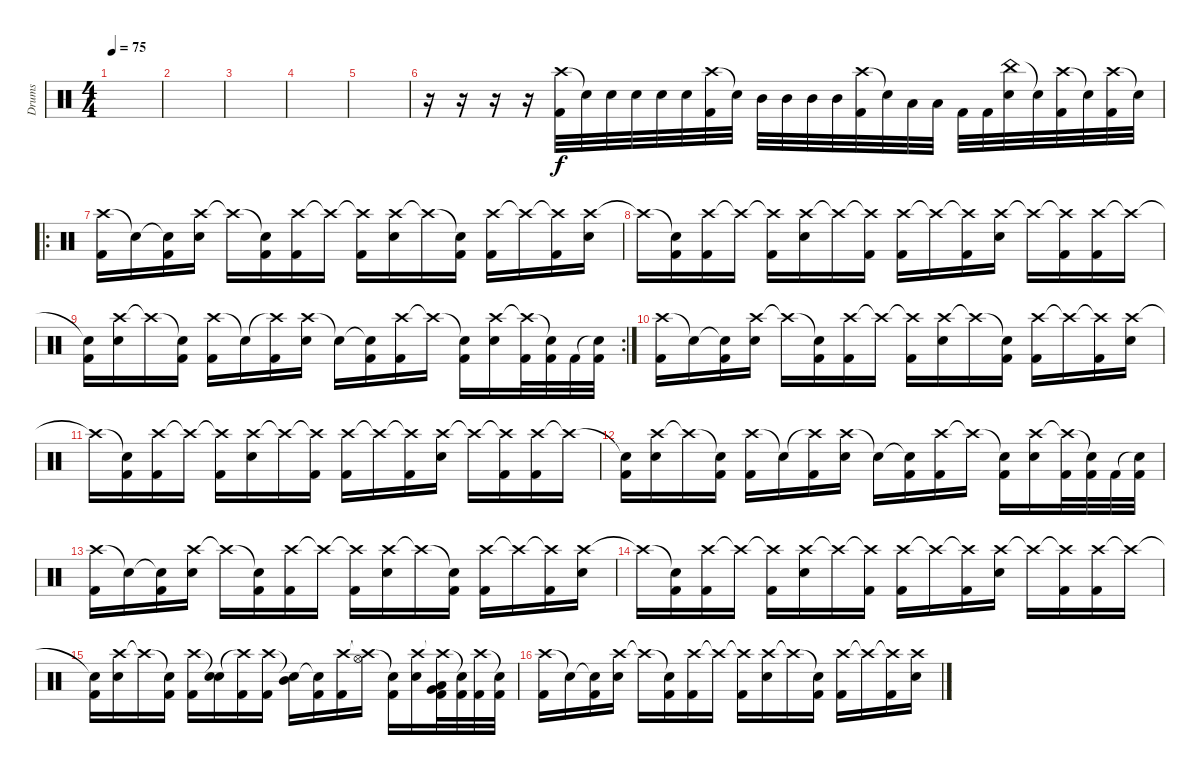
\track ("Drums" "Drums") {instrument percussion}
\staff {score}
\articulation defaults
\ts (4 4)
\tempo 75
\clef neutral
\ks c
|
|
|
|
|
r.16 r.16 r.16 r.16 ("Crash high (hit)" "Kick (hit) 2").32 "Snare (hit)"{t}.32 "Electric Snare (hit)".32 "Electric Snare (hit)".32 "Electric Snare (hit)".32 "Electric Snare (hit)".32 ("Crash high (hit)" "Kick (hit) 2").32 "Snare (hit)"{t}.32 "Mid Tom (hit)".32 "Mid Tom (hit)".32 "Mid Tom (hit)".32 "Mid Tom (hit)".32 ("Crash high (hit)" "Kick (hit) 2").32 "Snare (hit)"{t}.32 "Low Tom (hit)".32 "Low Tom (hit)".32 "Kick (hit) 2".32 "Kick (hit) 2".32 ("China (hit)" "Electric Snare (hit)").32 "Snare (hit)"{t}.32 ("Crash high (hit)" "Kick (hit) 2").32 "Snare (hit)"{t}.32 ("Crash high (hit)" "Kick (hit) 2").32 "Snare (hit)"{t}.32 |
\ro
("Crash high (hit)" "Kick (hit) 2").16 "Snare (hit)"{t}.16 ("Snare (hit)"{t} "Kick (hit) 2").16 ("Crash high (hit)" "Electric Snare (hit)").16 "Crash high (hit)"{t}.16 ("Snare (hit)"{t} "Kick (hit) 2").16 ("Crash high (hit)" "Kick (hit) 2").16 "Crash high (hit)"{t}.16 ("Crash high (hit)"{t} "Kick (hit) 2").16 ("Crash high (hit)" "Electric Snare (hit)").16 "Crash high (hit)"{t}.16 ("Snare (hit)"{t} "Kick (hit) 2").16 ("Crash high (hit)" "Kick (hit) 2").16 "Crash high (hit)"{t}.16 ("Crash high (hit)"{t} "Kick (hit) 2").16 ("Crash high (hit)" "Electric Snare (hit)").16 |
"Crash high (hit)"{t}.16 ("Snare (hit)"{t} "Kick (hit) 2").16 ("Crash high (hit)" "Kick (hit) 2").16 "Crash high (hit)"{t}.16 ("Crash high (hit)"{t} "Kick (hit) 2").16 ("Crash high (hit)" "Electric Snare (hit)").16 "Crash high (hit)"{t}.16 ("Crash high (hit)"{t} "Kick (hit) 2").16 ("Crash high (hit)" "Kick (hit) 2").16 "Crash high (hit)"{t}.16 ("Crash high (hit)"{t} "Kick (hit) 2").16 ("Crash high (hit)" "Electric Snare (hit)").16 "Crash high (hit)"{t}.16 ("Crash high (hit)"{t} "Kick (hit) 2").16 ("Crash high (hit)" "Kick (hit) 2").16 "Crash high (hit)"{t}.16 |
\rc 2
("Snare (hit)"{t} "Kick (hit) 2").16 ("Crash high (hit)" "Electric Snare (hit)").16 "Crash high (hit)"{t}.16 ("Snare (hit)"{t} "Kick (hit) 2").16 ("Crash high (hit)" "Kick (hit) 2").16 "Snare (hit)"{t}.16 ("Crash high (hit)"{t} "Kick (hit) 2").16 ("Crash high (hit)" "Electric Snare (hit)").16 "Snare (hit)"{t}.16 ("Snare (hit)"{t} "Kick (hit) 2").16 ("Crash high (hit)" "Kick (hit) 2").16 "Crash high (hit)"{t}.16 ("Snare (hit)"{t} "Kick (hit) 2").16 ("Crash high (hit)" "Electric Snare (hit)").16 ("Crash high (hit)"{t} "Kick (hit) 2").32 ("Snare (hit)"{t} "Kick (hit) 2").32 "Kick (hit) 2".32 ("Snare (hit)"{t} "Kick (hit) 2").32 |
("Crash high (hit)" "Kick (hit) 2").16 "Snare (hit)"{t}.16 ("Snare (hit)"{t} "Kick (hit) 2").16 ("Crash high (hit)" "Electric Snare (hit)").16 "Crash high (hit)"{t}.16 ("Snare (hit)"{t} "Kick (hit) 2").16 ("Crash high (hit)" "Kick (hit) 2").16 "Crash high (hit)"{t}.16 ("Crash high (hit)"{t} "Kick (hit) 2").16 ("Crash high (hit)" "Electric Snare (hit)").16 "Crash high (hit)"{t}.16 ("Snare (hit)"{t} "Kick (hit) 2").16 ("Crash high (hit)" "Kick (hit) 2").16 "Crash high (hit)"{t}.16 ("Crash high (hit)"{t} "Kick (hit) 2").16 ("Crash high (hit)" "Electric Snare (hit)").16 |
"Crash high (hit)"{t}.16 ("Snare (hit)"{t} "Kick (hit) 2").16 ("Crash high (hit)" "Kick (hit) 2").16 "Crash high (hit)"{t}.16 ("Crash high (hit)"{t} "Kick (hit) 2").16 ("Crash high (hit)" "Electric Snare (hit)").16 "Crash high (hit)"{t}.16 ("Crash high (hit)"{t} "Kick (hit) 2").16 ("Crash high (hit)" "Kick (hit) 2").16 "Crash high (hit)"{t}.16 ("Crash high (hit)"{t} "Kick (hit) 2").16 ("Crash high (hit)" "Electric Snare (hit)").16 "Crash high (hit)"{t}.16 ("Crash high (hit)"{t} "Kick (hit) 2").16 ("Crash high (hit)" "Kick (hit) 2").16 "Crash high (hit)"{t}.16 |
("Snare (hit)"{t} "Kick (hit) 2").16 ("Crash high (hit)" "Electric Snare (hit)").16 "Crash high (hit)"{t}.16 ("Snare (hit)"{t} "Kick (hit) 2").16 ("Crash high (hit)" "Kick (hit) 2").16 "Snare (hit)"{t}.16 ("Crash high (hit)"{t} "Kick (hit) 2").16 ("Crash high (hit)" "Electric Snare (hit)").16 "Snare (hit)"{t}.16 ("Snare (hit)"{t} "Kick (hit) 2").16 ("Crash high (hit)" "Kick (hit) 2").16 "Crash high (hit)"{t}.16 ("Snare (hit)"{t} "Kick (hit) 2").16 ("Crash high (hit)" "Electric Snare (hit)").16 ("Crash high (hit)"{t} "Kick (hit) 2").32 ("Snare (hit)"{t} "Kick (hit) 2").32 "Kick (hit) 2".32 ("Snare (hit)"{t} "Kick (hit) 2").32 |
("Crash high (hit)" "Kick (hit) 2").16 "Snare (hit)"{t}.16 ("Snare (hit)"{t} "Kick (hit) 2").16 ("Crash high (hit)" "Electric Snare (hit)").16 "Crash high (hit)"{t}.16 ("Snare (hit)"{t} "Kick (hit) 2").16 ("Crash high (hit)" "Kick (hit) 2").16 "Crash high (hit)"{t}.16 ("Crash high (hit)"{t} "Kick (hit) 2").16 ("Crash high (hit)" "Electric Snare (hit)").16 "Crash high (hit)"{t}.16 ("Snare (hit)"{t} "Kick (hit) 2").16 ("Crash high (hit)" "Kick (hit) 2").16 "Crash high (hit)"{t}.16 ("Crash high (hit)"{t} "Kick (hit) 2").16 ("Crash high (hit)" "Electric Snare (hit)").16 |
"Crash high (hit)"{t}.16 ("Snare (hit)"{t} "Kick (hit) 2").16 ("Crash high (hit)" "Kick (hit) 2").16 "Crash high (hit)"{t}.16 ("Crash high (hit)"{t} "Kick (hit) 2").16 ("Crash high (hit)" "Electric Snare (hit)").16 "Crash high (hit)"{t}.16 ("Crash high (hit)"{t} "Kick (hit) 2").16 ("Crash high (hit)" "Kick (hit) 2").16 "Crash high (hit)"{t}.16 ("Crash high (hit)"{t} "Kick (hit) 2").16 ("Crash high (hit)" "Electric Snare (hit)").16 "Crash high (hit)"{t}.16 ("Crash high (hit)"{t} "Kick (hit) 2").16 ("Crash high (hit)" "Kick (hit) 2").16 "Crash high (hit)"{t}.16 |
("Snare (hit)"{t} "Kick (hit) 2").16 ("Crash high (hit)" "Electric Snare (hit)").16 "Crash high (hit)"{t}.16 ("Snare (hit)"{t} "Kick (hit) 2").16 ("Crash high (hit)" "Kick (hit) 2").16 ("Snare (hit)"{t} "Electric Snare (hit)").16 ("Crash high (hit)"{t} "Kick (hit) 2").16 ("Crash high (hit)" "Kick (hit) 2").16 ("Snare (hit)"{t} "Mid Tom (hit)").16 ("Snare (hit)"{t} "Kick (hit) 2").16 ("Crash high (hit)" "Kick (hit) 2").16 ("Crash high (hit)"{t} "Hi-Hat (open)").16 ("Snare (hit)"{t} "Kick (hit) 2").16 ("Crash high (hit)" "Electric Snare (hit)").16 ("Crash high (hit)"{t} "Low Floor Tom (hit)" "Very Low Tom (hit)" "Kick (hit) 2").32 ("Snare (hit)"{t} "Kick (hit) 2").32 ("Crash high (hit)" "Kick (hit) 2").32 ("Snare (hit)"{t} "Kick (hit) 2").32 |
("Crash high (hit)" "Kick (hit) 2").16 "Snare (hit)"{t}.16 ("Snare (hit)"{t} "Kick (hit) 2").16 ("Crash high (hit)" "Electric Snare (hit)").16 "Crash high (hit)"{t}.16 ("Snare (hit)"{t} "Kick (hit) 2").16 ("Crash high (hit)" "Kick (hit) 2").16 "Crash high (hit)"{t}.16 ("Crash high (hit)"{t} "Kick (hit) 2").16 ("Crash high (hit)" "Electric Snare (hit)").16 "Crash high (hit)"{t}.16 ("Snare (hit)"{t} "Kick (hit) 2").16 ("Crash high (hit)" "Kick (hit) 2").16 "Crash high (hit)"{t}.16 ("Crash high (hit)"{t} "Kick (hit) 2").16 ("Crash high (hit)" "Electric Snare (hit)").16
